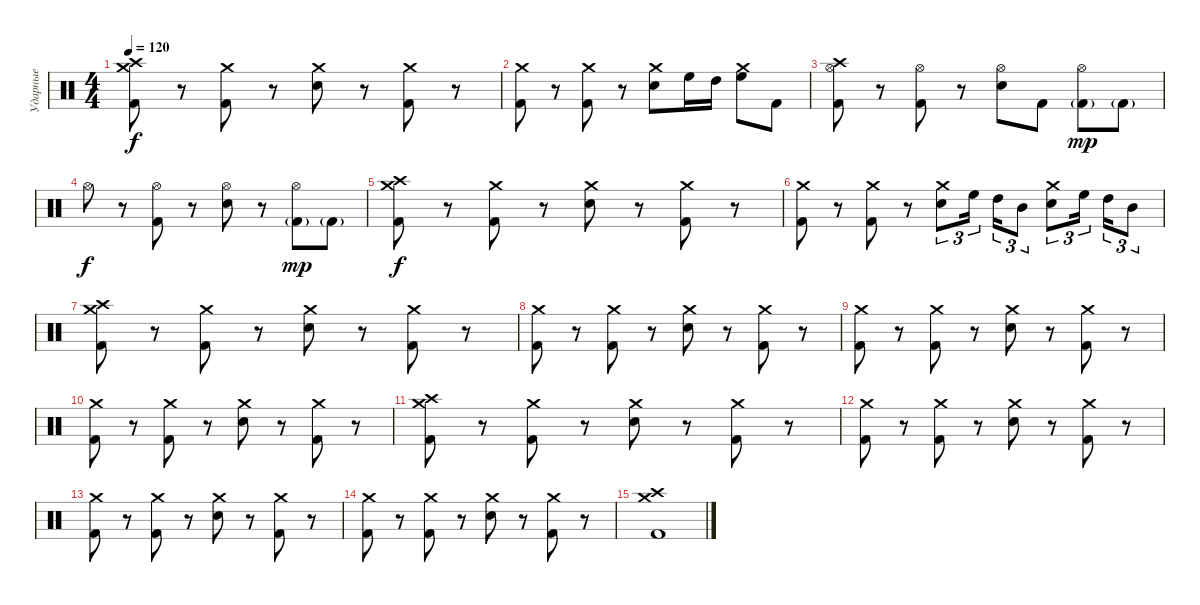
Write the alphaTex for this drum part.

\track ("Ударные" "Ударные") {instrument percussion}
\staff {score}
\articulation defaults
\ts (4 4)
\tempo 120
\clef neutral
\ks c
("Crash medium (hit)" "Crash high (hit)" "Kick (hit) 2").8{dy f} r.8 ("Crash medium (hit)" "Kick (hit) 2").8 r.8 ("Crash medium (hit)" "Electric Snare (hit)").8 r.8 ("Crash medium (hit)" "Kick (hit) 2").8 r.8 |
("Crash medium (hit)" "Kick (hit) 2").8 r.8 ("Crash medium (hit)" "Kick (hit) 2").8 r.8 ("Crash medium (hit)" "Electric Snare (hit)").8 "High Floor Tom (hit)".16 "High Tom (hit)".16 ("Crash medium (hit)" "High Floor Tom (hit)").8 "Kick (hit) 2".8 |
("Hi-Hat (open)" "Crash high (hit)" "Kick (hit) 2").8 r.8 ("Hi-Hat (open)" "Kick (hit) 2").8 r.8 ("Hi-Hat (open)" "Electric Snare (hit)").8 "Kick (hit) 2".8 ("Hi-Hat (open)" "Kick (hit) 2"{g}).8{dy mp} "Kick (hit) 2"{g}.8 |
"Hi-Hat (open)".8{dy f} r.8 ("Hi-Hat (open)" "Kick (hit) 2").8 r.8 ("Hi-Hat (open)" "Electric Snare (hit)").8 r.8 ("Hi-Hat (open)" "Kick (hit) 2"{g}).8{dy mp} "Kick (hit) 2"{g}.8 |
("Crash medium (hit)" "Crash high (hit)" "Kick (hit) 2").8{dy f} r.8 ("Crash medium (hit)" "Kick (hit) 2").8 r.8 ("Crash medium (hit)" "Electric Snare (hit)").8 r.8 ("Crash medium (hit)" "Kick (hit) 2").8 r.8 |
("Crash medium (hit)" "Kick (hit) 2").8 r.8 ("Crash medium (hit)" "Kick (hit) 2").8 r.8 ("Crash medium (hit)" "Electric Snare (hit)").8{tu (3 2)} "High Floor Tom (hit)".16{tu (3 2) beam splitsecondary} "High Tom (hit)".16{tu (3 2)} "Mid Tom (hit)".8{tu (3 2)} ("Crash medium (hit)" "Electric Snare (hit)").8{tu (3 2)} "High Floor Tom (hit)".16{tu (3 2) beam splitsecondary} "High Tom (hit)".16{tu (3 2)} "Mid Tom (hit)".8{tu (3 2)} |
("Crash medium (hit)" "Crash high (hit)" "Kick (hit) 2").8 r.8 ("Crash medium (hit)" "Kick (hit) 2").8 r.8 ("Crash medium (hit)" "Electric Snare (hit)").8 r.8 ("Crash medium (hit)" "Kick (hit) 2").8 r.8 |
("Crash medium (hit)" "Kick (hit) 2").8 r.8 ("Crash medium (hit)" "Kick (hit) 2").8 r.8 ("Crash medium (hit)" "Electric Snare (hit)").8 r.8 ("Crash medium (hit)" "Kick (hit) 2").8 r.8 |
("Crash medium (hit)" "Kick (hit) 2").8 r.8 ("Crash medium (hit)" "Kick (hit) 2").8 r.8 ("Crash medium (hit)" "Electric Snare (hit)").8 r.8 ("Crash medium (hit)" "Kick (hit) 2").8 r.8 |
("Crash medium (hit)" "Kick (hit) 2").8 r.8 ("Crash medium (hit)" "Kick (hit) 2").8 r.8 ("Crash medium (hit)" "Electric Snare (hit)").8 r.8 ("Crash medium (hit)" "Kick (hit) 2").8 r.8 |
("Crash medium (hit)" "Crash high (hit)" "Kick (hit) 2").8 r.8 ("Crash medium (hit)" "Kick (hit) 2").8 r.8 ("Crash medium (hit)" "Electric Snare (hit)").8 r.8 ("Crash medium (hit)" "Kick (hit) 2").8 r.8 |
("Crash medium (hit)" "Kick (hit) 2").8 r.8 ("Crash medium (hit)" "Kick (hit) 2").8 r.8 ("Crash medium (hit)" "Electric Snare (hit)").8 r.8 ("Crash medium (hit)" "Kick (hit) 2").8 r.8 |
("Crash medium (hit)" "Kick (hit) 2").8 r.8 ("Crash medium (hit)" "Kick (hit) 2").8 r.8 ("Crash medium (hit)" "Electric Snare (hit)").8 r.8 ("Crash medium (hit)" "Kick (hit) 2").8 r.8 |
("Crash medium (hit)" "Kick (hit) 2").8 r.8 ("Crash medium (hit)" "Kick (hit) 2").8 r.8 ("Crash medium (hit)" "Electric Snare (hit)").8 r.8 ("Crash medium (hit)" "Kick (hit) 2").8 r.8 |
("Crash medium (hit)" "Crash high (hit)" "Kick (hit) 2").1
